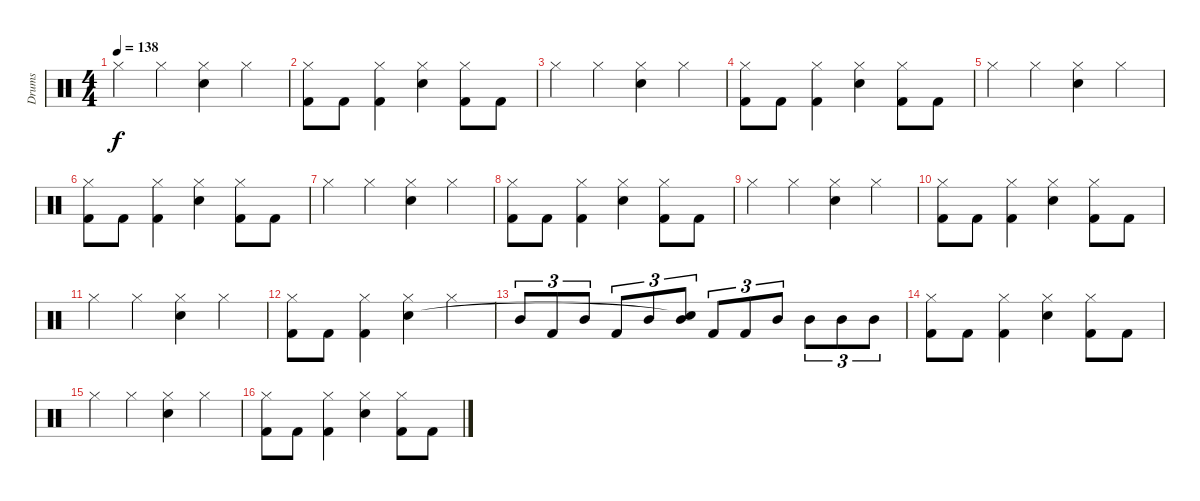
\track ("Drums" "Drums") {instrument percussion}
\staff {score}
\articulation defaults
\ts (4 4)
\tempo 138
\clef neutral
\ks c "Hi-Hat (closed)".4{dy f} "Hi-Hat (closed)".4
("Hi-Hat (closed)" "Snare (hit) 2").4 "Hi-Hat (closed)".4 |
("Hi-Hat (closed)" "Kick (hit) 2").8 "Kick (hit) 2".8 ("Hi-Hat (closed)" "Kick (hit) 2").4 ("Hi-Hat (closed)" "Snare (hit) 2").4 ("Hi-Hat (closed)" "Kick (hit) 2").8 "Kick (hit) 2".8 |
"Hi-Hat (closed)".4 "Hi-Hat (closed)".4 ("Hi-Hat (closed)" "Snare (hit) 2").4 "Hi-Hat (closed)".4 |
("Hi-Hat (closed)" "Kick (hit) 2").8 "Kick (hit) 2".8 ("Hi-Hat (closed)" "Kick (hit) 2").4 ("Hi-Hat (closed)" "Snare (hit) 2").4 ("Hi-Hat (closed)" "Kick (hit) 2").8 "Kick (hit) 2".8 |
"Hi-Hat (closed)".4 "Hi-Hat (closed)".4 ("Hi-Hat (closed)" "Snare (hit) 2").4 "Hi-Hat (closed)".4 |
("Hi-Hat (closed)" "Kick (hit) 2").8 "Kick (hit) 2".8 ("Hi-Hat (closed)" "Kick (hit) 2").4 ("Hi-Hat (closed)" "Snare (hit) 2").4 ("Hi-Hat (closed)" "Kick (hit) 2").8 "Kick (hit) 2".8 |
"Hi-Hat (closed)".4 "Hi-Hat (closed)".4 ("Hi-Hat (closed)" "Snare (hit) 2").4 "Hi-Hat (closed)".4 |
("Hi-Hat (closed)" "Kick (hit) 2").8 "Kick (hit) 2".8 ("Hi-Hat (closed)" "Kick (hit) 2").4 ("Hi-Hat (closed)" "Snare (hit) 2").4 ("Hi-Hat (closed)" "Kick (hit) 2").8 "Kick (hit) 2".8 |
"Hi-Hat (closed)".4 "Hi-Hat (closed)".4 ("Hi-Hat (closed)" "Snare (hit) 2").4 "Hi-Hat (closed)".4 |
("Hi-Hat (closed)" "Kick (hit) 2").8 "Kick (hit) 2".8 ("Hi-Hat (closed)" "Kick (hit) 2").4 ("Hi-Hat (closed)" "Snare (hit) 2").4 ("Hi-Hat (closed)" "Kick (hit) 2").8 "Kick (hit) 2".8 |
"Hi-Hat (closed)".4 "Hi-Hat (closed)".4 ("Hi-Hat (closed)" "Snare (hit) 2").4 "Hi-Hat (closed)".4 |
("Hi-Hat (closed)" "Kick (hit) 2").8 "Kick (hit) 2".8 ("Hi-Hat (closed)" "Kick (hit) 2").4 ("Hi-Hat (closed)" "Snare (hit) 2").4 "Hi-Hat (closed)".4 |
"Mid Tom (hit)".8{tu (3 2)} "Kick (hit) 2".8{tu (3 2)} "Mid Tom (hit)".8{tu (3 2)} "Kick (hit) 2".8{tu (3 2)} "Mid Tom (hit)".8{tu (3 2)} ("Mid Tom (hit)" "Snare (hit)"{t}).8{tu (3 2)} "Kick (hit) 2".8{tu (3 2)} "Kick (hit) 2".8{tu (3 2)} "Mid Tom (hit)".8{tu (3 2)} "Mid Tom (hit)".8{tu (3 2)} "Mid Tom (hit)".8{tu (3 2)} "Mid Tom (hit)".8{tu (3 2)} |
("Hi-Hat (closed)" "Kick (hit) 2").8 "Kick (hit) 2".8 ("Hi-Hat (closed)" "Kick (hit) 2").4 ("Hi-Hat (closed)" "Snare (hit) 2").4 ("Hi-Hat (closed)" "Kick (hit) 2").8 "Kick (hit) 2".8 |
"Hi-Hat (closed)".4 "Hi-Hat (closed)".4 ("Hi-Hat (closed)" "Snare (hit) 2").4 "Hi-Hat (closed)".4 |
("Hi-Hat (closed)" "Kick (hit) 2").8 "Kick (hit) 2".8 ("Hi-Hat (closed)" "Kick (hit) 2").4 ("Hi-Hat (closed)" "Snare (hit) 2").4 ("Hi-Hat (closed)" "Kick (hit) 2").8 "Kick (hit) 2".8
